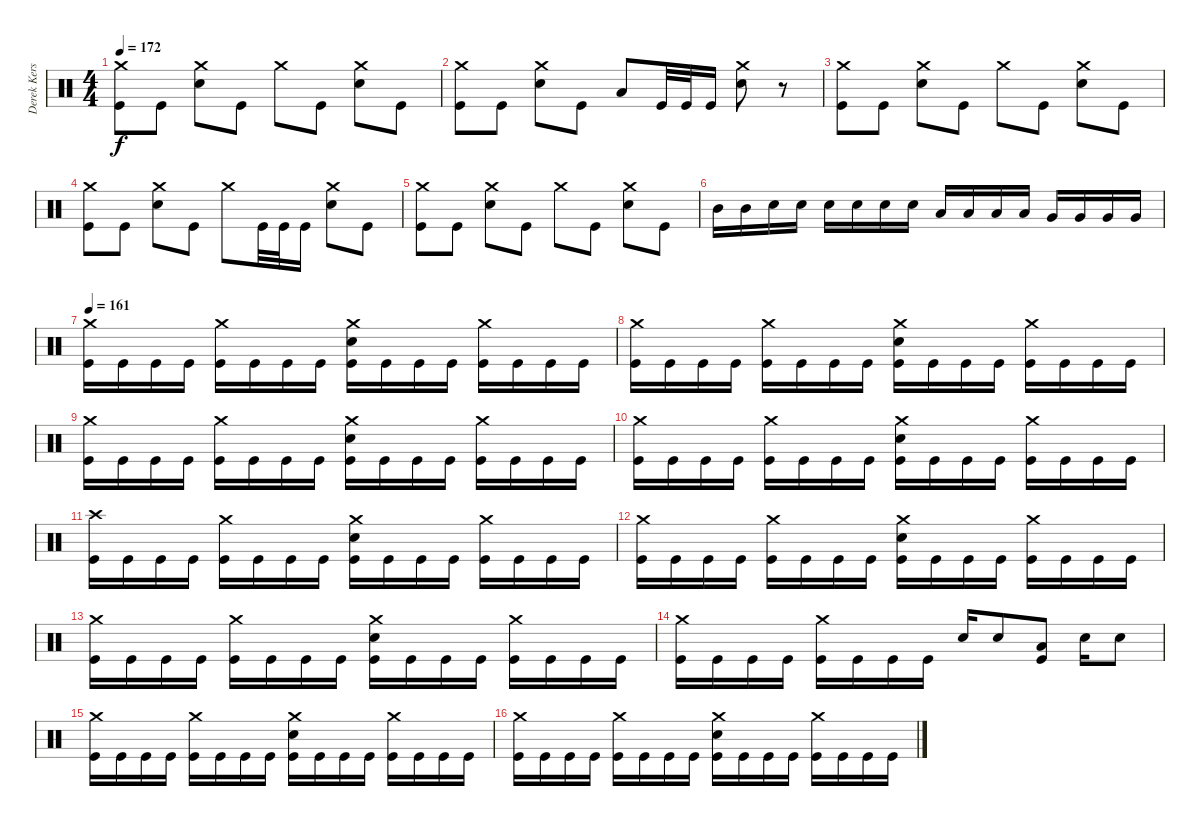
\track ("Derek Kerswill" "Derek Kers") {instrument percussion}
\staff {score}
\articulation defaults
\ts (4 4)
\tempo 172
\clef neutral
\ks c
("Crash medium (hit)" "Kick (hit)").8{dy f} "Kick (hit)".8 ("Crash medium (hit)" "Electric Snare (hit)").8 "Kick (hit)".8 "Crash medium (hit)".8 "Kick (hit)".8 ("Crash medium (hit)" "Electric Snare (hit)").8 "Kick (hit)".8 |
("Crash medium (hit)" "Kick (hit)").8 "Kick (hit)".8 ("Crash medium (hit)" "Electric Snare (hit)").8 "Kick (hit)".8 "Low Tom (hit)".8 "Kick (hit)".32 "Kick (hit)".32 "Kick (hit)".16 ("Crash medium (hit)" "Electric Snare (hit)").8 r.8 |
("Crash medium (hit)" "Kick (hit)").8 "Kick (hit)".8 ("Crash medium (hit)" "Electric Snare (hit)").8 "Kick (hit)".8 "Crash medium (hit)".8 "Kick (hit)".8 ("Crash medium (hit)" "Electric Snare (hit)").8 "Kick (hit)".8 |
("Crash medium (hit)" "Kick (hit)").8 "Kick (hit)".8 ("Crash medium (hit)" "Electric Snare (hit)").8 "Kick (hit)".8 "Crash medium (hit)".8 "Kick (hit)".32 "Kick (hit)".32 "Kick (hit)".16 ("Crash medium (hit)" "Electric Snare (hit)").8 "Kick (hit)".8 |
("Crash medium (hit)" "Kick (hit)").8 "Kick (hit)".8 ("Crash medium (hit)" "Electric Snare (hit)").8 "Kick (hit)".8 "Crash medium (hit)".8 "Kick (hit)".8 ("Crash medium (hit)" "Electric Snare (hit)").8 "Kick (hit)".8 |
"Mid Tom (hit)".16 "Mid Tom (hit)".16 "Electric Snare (hit)".16 "Electric Snare (hit)".16 "Electric Snare (hit)".16 "Electric Snare (hit)".16 "Electric Snare (hit)".16 "Electric Snare (hit)".16 "Low Tom (hit)".16 "Low Tom (hit)".16 "Low Tom (hit)".16 "Low Tom (hit)".16 "Very Low Tom (hit)".16 "Very Low Tom (hit)".16 "Very Low Tom (hit)".16 "Very Low Tom (hit)".16 |
\tempo 161
("Crash medium (hit)" "Kick (hit)").16 "Kick (hit)".16 "Kick (hit)".16 "Kick (hit)".16 ("Crash medium (hit)" "Kick (hit)").16 "Kick (hit)".16 "Kick (hit)".16 "Kick (hit)".16 ("Crash medium (hit)" "Electric Snare (hit)" "Kick (hit)").16 "Kick (hit)".16 "Kick (hit)".16 "Kick (hit)".16 ("Crash medium (hit)" "Kick (hit)").16 "Kick (hit)".16 "Kick (hit)".16 "Kick (hit)".16 |
("Crash medium (hit)" "Kick (hit)").16 "Kick (hit)".16 "Kick (hit)".16 "Kick (hit)".16 ("Crash medium (hit)" "Kick (hit)").16 "Kick (hit)".16 "Kick (hit)".16 "Kick (hit)".16 ("Crash medium (hit)" "Electric Snare (hit)" "Kick (hit)").16 "Kick (hit)".16 "Kick (hit)".16 "Kick (hit)".16 ("Crash medium (hit)" "Kick (hit)").16 "Kick (hit)".16 "Kick (hit)".16 "Kick (hit)".16 |
("Crash medium (hit)" "Kick (hit)").16 "Kick (hit)".16 "Kick (hit)".16 "Kick (hit)".16 ("Crash medium (hit)" "Kick (hit)").16 "Kick (hit)".16 "Kick (hit)".16 "Kick (hit)".16 ("Crash medium (hit)" "Electric Snare (hit)" "Kick (hit)").16 "Kick (hit)".16 "Kick (hit)".16 "Kick (hit)".16 ("Crash medium (hit)" "Kick (hit)").16 "Kick (hit)".16 "Kick (hit)".16 "Kick (hit)".16 |
("Crash medium (hit)" "Kick (hit)").16 "Kick (hit)".16 "Kick (hit)".16 "Kick (hit)".16 ("Crash medium (hit)" "Kick (hit)").16 "Kick (hit)".16 "Kick (hit)".16 "Kick (hit)".16 ("Crash medium (hit)" "Electric Snare (hit)" "Kick (hit)").16 "Kick (hit)".16 "Kick (hit)".16 "Kick (hit)".16 ("Crash medium (hit)" "Kick (hit)").16 "Kick (hit)".16 "Kick (hit)".16 "Kick (hit)".16 |
("Crash high (hit)" "Kick (hit)").16 "Kick (hit)".16 "Kick (hit)".16 "Kick (hit)".16 ("Crash medium (hit)" "Kick (hit)").16 "Kick (hit)".16 "Kick (hit)".16 "Kick (hit)".16 ("Crash medium (hit)" "Electric Snare (hit)" "Kick (hit)").16 "Kick (hit)".16 "Kick (hit)".16 "Kick (hit)".16 ("Crash medium (hit)" "Kick (hit)").16 "Kick (hit)".16 "Kick (hit)".16 "Kick (hit)".16 |
("Crash medium (hit)" "Kick (hit)").16 "Kick (hit)".16 "Kick (hit)".16 "Kick (hit)".16 ("Crash medium (hit)" "Kick (hit)").16 "Kick (hit)".16 "Kick (hit)".16 "Kick (hit)".16 ("Crash medium (hit)" "Electric Snare (hit)" "Kick (hit)").16 "Kick (hit)".16 "Kick (hit)".16 "Kick (hit)".16 ("Crash medium (hit)" "Kick (hit)").16 "Kick (hit)".16 "Kick (hit)".16 "Kick (hit)".16 |
("Crash medium (hit)" "Kick (hit)").16 "Kick (hit)".16 "Kick (hit)".16 "Kick (hit)".16 ("Crash medium (hit)" "Kick (hit)").16 "Kick (hit)".16 "Kick (hit)".16 "Kick (hit)".16 ("Crash medium (hit)" "Electric Snare (hit)" "Kick (hit)").16 "Kick (hit)".16 "Kick (hit)".16 "Kick (hit)".16 ("Crash medium (hit)" "Kick (hit)").16 "Kick (hit)".16 "Kick (hit)".16 "Kick (hit)".16 |
("Crash medium (hit)" "Kick (hit)").16 "Kick (hit)".16 "Kick (hit)".16 "Kick (hit)".16 ("Crash medium (hit)" "Kick (hit)").16 "Kick (hit)".16 "Kick (hit)".16 "Kick (hit)".16 "Electric Snare (hit)".16 "Electric Snare (hit)".8 ("Low Tom (hit)" "Kick (hit)").8 "Electric Snare (hit)".16 "Electric Snare (hit)".8 |
("Crash medium (hit)" "Kick (hit)").16 "Kick (hit)".16 "Kick (hit)".16 "Kick (hit)".16 ("Crash medium (hit)" "Kick (hit)").16 "Kick (hit)".16 "Kick (hit)".16 "Kick (hit)".16 ("Crash medium (hit)" "Electric Snare (hit)" "Kick (hit)").16 "Kick (hit)".16 "Kick (hit)".16 "Kick (hit)".16 ("Crash medium (hit)" "Kick (hit)").16 "Kick (hit)".16 "Kick (hit)".16 "Kick (hit)".16 |
("Crash medium (hit)" "Kick (hit)").16 "Kick (hit)".16 "Kick (hit)".16 "Kick (hit)".16 ("Crash medium (hit)" "Kick (hit)").16 "Kick (hit)".16 "Kick (hit)".16 "Kick (hit)".16 ("Crash medium (hit)" "Electric Snare (hit)" "Kick (hit)").16 "Kick (hit)".16 "Kick (hit)".16 "Kick (hit)".16 ("Crash medium (hit)" "Kick (hit)").16 "Kick (hit)".16 "Kick (hit)".16 "Kick (hit)".16
